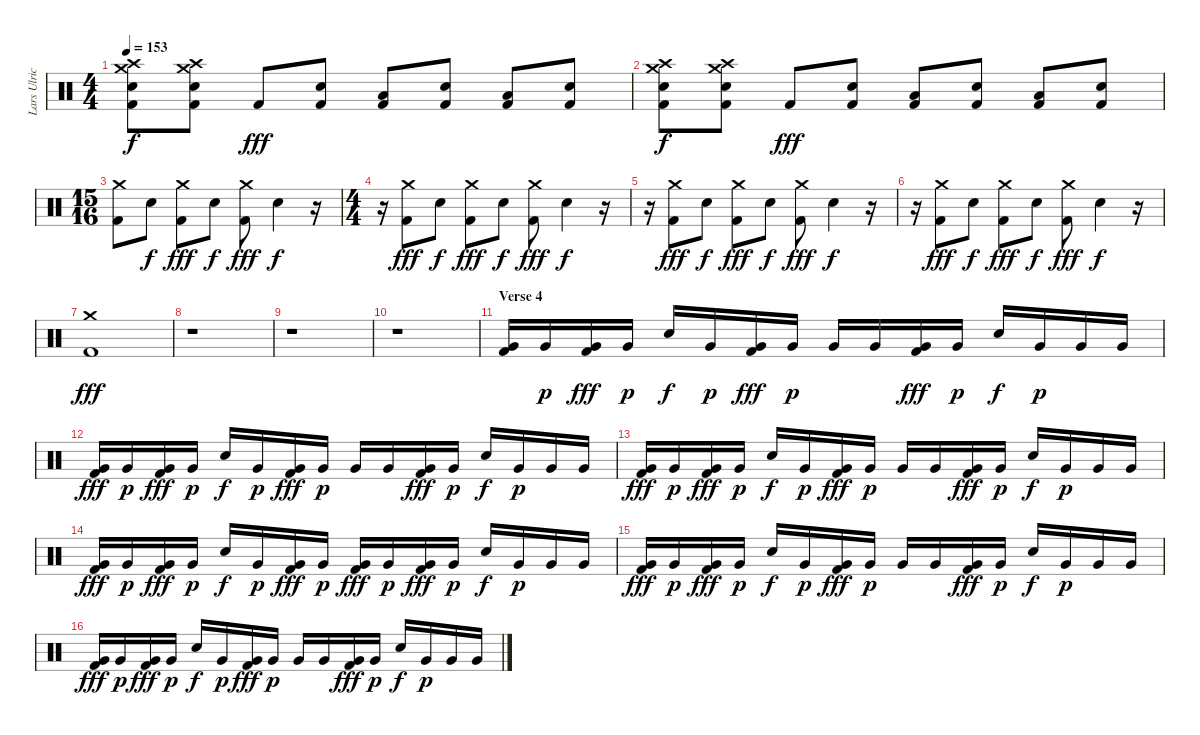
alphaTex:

\track ("Lars Ulrich (Drums)" "Lars Ulric") {instrument percussion}
\staff {score}
\articulation defaults
\ts (4 4)
\tempo 153
\clef neutral
\ks c
("Crash medium (hit)" "Crash high (hit)" "Electric Snare (hit)" "Kick (hit) 2").8{dy f} ("Crash medium (hit)" "Crash high (hit)" "Electric Snare (hit)" "Kick (hit) 2").8 "Kick (hit) 2".8{dy fff} ("Electric Snare (hit)" "Kick (hit) 2").8 ("Low Floor Tom (hit)" "Kick (hit) 2").8 ("Electric Snare (hit)" "Kick (hit) 2").8 ("Low Floor Tom (hit)" "Kick (hit) 2").8 ("Electric Snare (hit)" "Kick (hit) 2").8 |
("Crash medium (hit)" "Crash high (hit)" "Electric Snare (hit)" "Kick (hit) 2").8{dy f} ("Crash medium (hit)" "Crash high (hit)" "Electric Snare (hit)" "Kick (hit) 2").8 "Kick (hit) 2".8{dy fff} ("Electric Snare (hit)" "Kick (hit) 2").8 ("Low Floor Tom (hit)" "Kick (hit) 2").8 ("Electric Snare (hit)" "Kick (hit) 2").8 ("Low Floor Tom (hit)" "Kick (hit) 2").8 ("Electric Snare (hit)" "Kick (hit) 2").8 |
\ts (15 16)
("Crash medium (hit)" "Kick (hit) 2").8 "Electric Snare (hit)".8{dy f} ("Crash medium (hit)" "Kick (hit) 2").8{dy fff} "Electric Snare (hit)".8{dy f} ("Crash medium (hit)" "Kick (hit) 2").8{dy fff} "Electric Snare (hit)".4{dy f} r.16 |
\ts (4 4)
r.16 ("Crash medium (hit)" "Kick (hit) 2").8{dy fff} "Electric Snare (hit)".8{dy f} ("Crash medium (hit)" "Kick (hit) 2").8{dy fff} "Electric Snare (hit)".8{dy f} ("Crash medium (hit)" "Kick (hit) 2").8{dy fff} "Electric Snare (hit)".4{dy f} r.16 |
r.16 ("Crash medium (hit)" "Kick (hit) 2").8{dy fff} "Electric Snare (hit)".8{dy f} ("Crash medium (hit)" "Kick (hit) 2").8{dy fff} "Electric Snare (hit)".8{dy f} ("Crash medium (hit)" "Kick (hit) 2").8{dy fff} "Electric Snare (hit)".4{dy f} r.16 |
r.16 ("Crash medium (hit)" "Kick (hit) 2").8{dy fff} "Electric Snare (hit)".8{dy f} ("Crash medium (hit)" "Kick (hit) 2").8{dy fff} "Electric Snare (hit)".8{dy f} ("Crash medium (hit)" "Kick (hit) 2").8{dy fff} "Electric Snare (hit)".4{dy f} r.16 |
("Crash medium (hit)" "Kick (hit) 2").1{dy fff} |
r.1 |
r.1 |
r.1 |
\section ("" "Verse 4")
("Very Low Tom (hit)" "Kick (hit) 2").16 "Very Low Tom (hit)".16{dy p} ("Very Low Tom (hit)" "Kick (hit) 2").16{dy fff} "Very Low Tom (hit)".16{dy p} "Electric Snare (hit)".16{dy f} "Very Low Tom (hit)".16{dy p} ("Very Low Tom (hit)" "Kick (hit) 2").16{dy fff} "Very Low Tom (hit)".16{dy p} "Very Low Tom (hit)".16 "Very Low Tom (hit)".16 ("Very Low Tom (hit)" "Kick (hit) 2").16{dy fff} "Very Low Tom (hit)".16{dy p} "Electric Snare (hit)".16{dy f} "Very Low Tom (hit)".16{dy p} "Very Low Tom (hit)".16 "Very Low Tom (hit)".16 |
("Very Low Tom (hit)" "Kick (hit) 2").16{dy fff} "Very Low Tom (hit)".16{dy p} ("Very Low Tom (hit)" "Kick (hit) 2").16{dy fff} "Very Low Tom (hit)".16{dy p} "Electric Snare (hit)".16{dy f} "Very Low Tom (hit)".16{dy p} ("Very Low Tom (hit)" "Kick (hit) 2").16{dy fff} "Very Low Tom (hit)".16{dy p} "Very Low Tom (hit)".16 "Very Low Tom (hit)".16 ("Very Low Tom (hit)" "Kick (hit) 2").16{dy fff} "Very Low Tom (hit)".16{dy p} "Electric Snare (hit)".16{dy f} "Very Low Tom (hit)".16{dy p} "Very Low Tom (hit)".16 "Very Low Tom (hit)".16 |
("Very Low Tom (hit)" "Kick (hit) 2").16{dy fff} "Very Low Tom (hit)".16{dy p} ("Very Low Tom (hit)" "Kick (hit) 2").16{dy fff} "Very Low Tom (hit)".16{dy p} "Electric Snare (hit)".16{dy f} "Very Low Tom (hit)".16{dy p} ("Very Low Tom (hit)" "Kick (hit) 2").16{dy fff} "Very Low Tom (hit)".16{dy p} "Very Low Tom (hit)".16 "Very Low Tom (hit)".16 ("Very Low Tom (hit)" "Kick (hit) 2").16{dy fff} "Very Low Tom (hit)".16{dy p} "Electric Snare (hit)".16{dy f} "Very Low Tom (hit)".16{dy p} "Very Low Tom (hit)".16 "Very Low Tom (hit)".16 |
("Very Low Tom (hit)" "Kick (hit) 2").16{dy fff} "Very Low Tom (hit)".16{dy p} ("Very Low Tom (hit)" "Kick (hit) 2").16{dy fff} "Very Low Tom (hit)".16{dy p} "Electric Snare (hit)".16{dy f} "Very Low Tom (hit)".16{dy p} ("Very Low Tom (hit)" "Kick (hit) 2").16{dy fff} "Very Low Tom (hit)".16{dy p} ("Very Low Tom (hit)" "Kick (hit) 2").16{dy fff} "Very Low Tom (hit)".16{dy p} ("Very Low Tom (hit)" "Kick (hit) 2").16{dy fff} "Very Low Tom (hit)".16{dy p} "Electric Snare (hit)".16{dy f} "Very Low Tom (hit)".16{dy p} "Very Low Tom (hit)".16 "Very Low Tom (hit)".16 |
("Very Low Tom (hit)" "Kick (hit) 2").16{dy fff} "Very Low Tom (hit)".16{dy p} ("Very Low Tom (hit)" "Kick (hit) 2").16{dy fff} "Very Low Tom (hit)".16{dy p} "Electric Snare (hit)".16{dy f} "Very Low Tom (hit)".16{dy p} ("Very Low Tom (hit)" "Kick (hit) 2").16{dy fff} "Very Low Tom (hit)".16{dy p} "Very Low Tom (hit)".16 "Very Low Tom (hit)".16 ("Very Low Tom (hit)" "Kick (hit) 2").16{dy fff} "Very Low Tom (hit)".16{dy p} "Electric Snare (hit)".16{dy f} "Very Low Tom (hit)".16{dy p} "Very Low Tom (hit)".16 "Very Low Tom (hit)".16 |
("Very Low Tom (hit)" "Kick (hit) 2").16{dy fff} "Very Low Tom (hit)".16{dy p} ("Very Low Tom (hit)" "Kick (hit) 2").16{dy fff} "Very Low Tom (hit)".16{dy p} "Electric Snare (hit)".16{dy f} "Very Low Tom (hit)".16{dy p} ("Very Low Tom (hit)" "Kick (hit) 2").16{dy fff} "Very Low Tom (hit)".16{dy p} "Very Low Tom (hit)".16 "Very Low Tom (hit)".16 ("Very Low Tom (hit)" "Kick (hit) 2").16{dy fff} "Very Low Tom (hit)".16{dy p} "Electric Snare (hit)".16{dy f} "Very Low Tom (hit)".16{dy p} "Very Low Tom (hit)".16 "Very Low Tom (hit)".16
